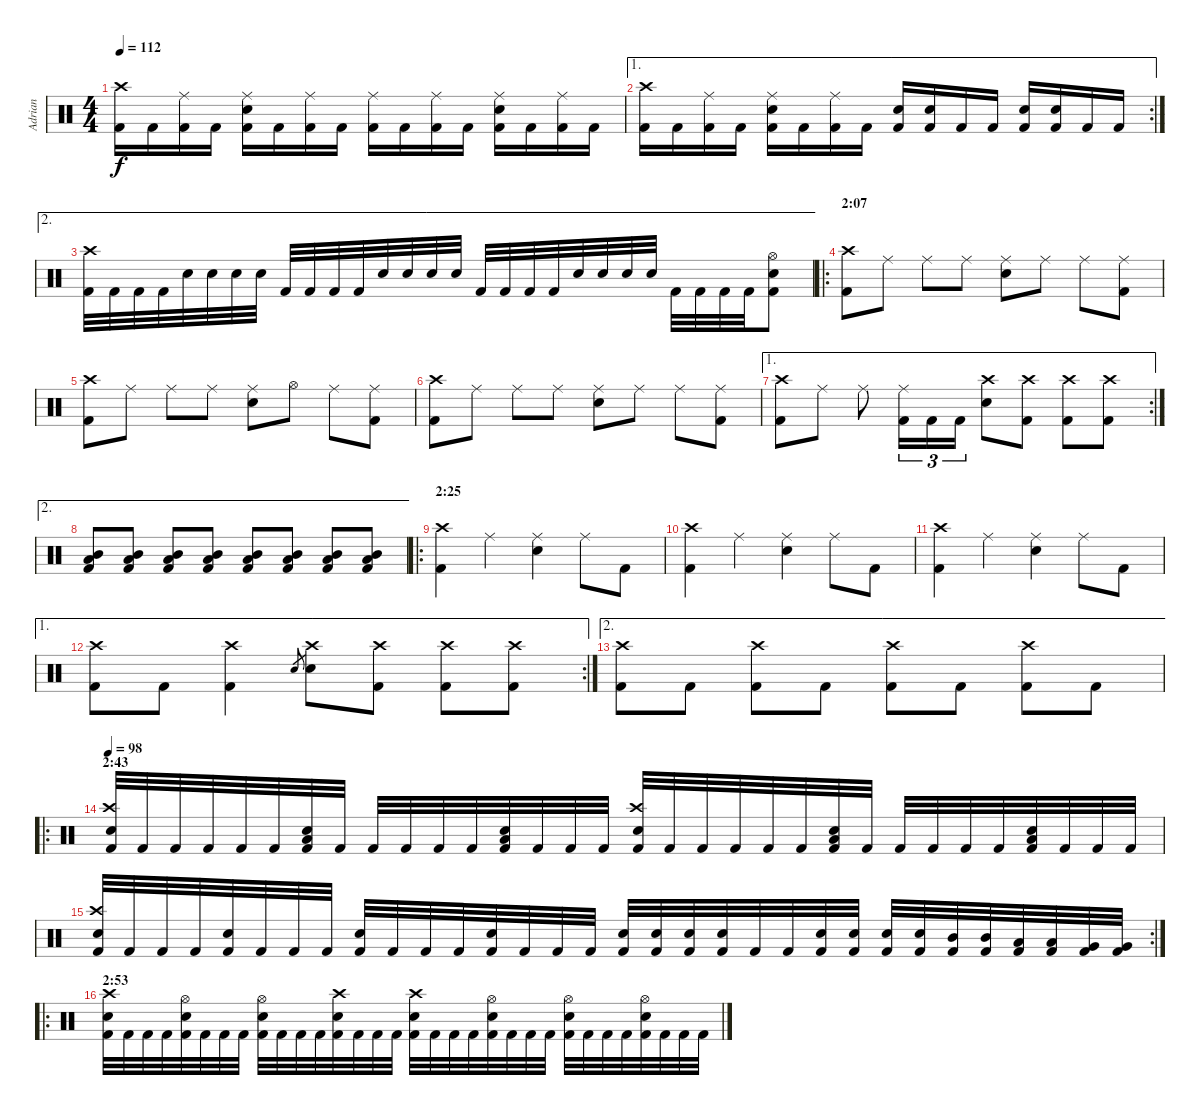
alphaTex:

\track ("Adrian" "Adrian") {instrument percussion}
\staff {score}
\articulation defaults
\ts (4 4)
\tempo 112
\clef neutral
\ks c
("Kick (hit) 2" "Crash high (hit)").16{dy f} "Kick (hit) 2".16 ("Kick (hit) 2" "Ride (middle)").16 "Kick (hit) 2".16 ("Kick (hit) 2" "Snare (hit) 2" "Ride (middle)").16 "Kick (hit) 2".16 ("Kick (hit) 2" "Ride (middle)").16 "Kick (hit) 2".16 ("Kick (hit) 2" "Ride (middle)").16 "Kick (hit) 2".16 ("Kick (hit) 2" "Ride (middle)").16 "Kick (hit) 2".16 ("Kick (hit) 2" "Snare (hit) 2" "Ride (middle)").16 "Kick (hit) 2".16 ("Kick (hit) 2" "Ride (middle)").16 "Kick (hit) 2".16 |
\ae 1
\rc 2
("Kick (hit) 2" "Crash high (hit)").16 "Kick (hit) 2".16 ("Kick (hit) 2" "Ride (middle)").16 "Kick (hit) 2".16 ("Kick (hit) 2" "Snare (hit) 2" "Ride (middle)").16 "Kick (hit) 2".16 ("Kick (hit) 2" "Ride (middle)").16 "Kick (hit) 2".16 ("Kick (hit) 2" "Snare (hit) 2").16 ("Kick (hit) 2" "Snare (hit) 2").16 "Kick (hit) 2".16 "Kick (hit) 2".16 ("Kick (hit) 2" "Snare (hit) 2").16 ("Kick (hit) 2" "Snare (hit) 2").16 "Kick (hit) 2".16 "Kick (hit) 2".16 |
\ae 2
("Kick (hit) 2" "Crash high (hit)").32 "Kick (hit) 2".32 "Kick (hit) 2".32 "Kick (hit) 2".32 "Snare (hit) 2".32 "Snare (hit) 2".32 "Snare (hit) 2".32 "Snare (hit) 2".32 "Kick (hit) 2".32 "Kick (hit) 2".32 "Kick (hit) 2".32 "Kick (hit) 2".32 "Snare (hit) 2".32 "Snare (hit) 2".32 "Snare (hit) 2".32 "Snare (hit) 2".32 "Kick (hit) 2".32 "Kick (hit) 2".32 "Kick (hit) 2".32 "Kick (hit) 2".32 "Snare (hit) 2".32 "Snare (hit) 2".32 "Snare (hit) 2".32 "Snare (hit) 2".32 "Kick (hit) 2".32 "Kick (hit) 2".32 "Kick (hit) 2".32 "Kick (hit) 2".32 ("Kick (hit) 2" "Snare (hit) 2" "Hi-Hat (open)").8 |
\ro
\section ("" "2:07")
("Kick (hit) 2" "Crash high (hit)").8 "Ride (middle)".8 "Ride (middle)".8 "Ride (middle)".8 ("Snare (hit) 2" "Ride (middle)").8 "Ride (middle)".8 "Ride (middle)".8 ("Kick (hit) 2" "Ride (middle)").8 |
("Kick (hit) 2" "Crash high (hit)").8 "Ride (middle)".8 "Ride (middle)".8 "Ride (middle)".8 ("Snare (hit) 2" "Ride (middle)").8 "Hi-Hat (open)".8 "Ride (middle)".8 ("Kick (hit) 2" "Ride (middle)").8 |
("Kick (hit) 2" "Crash high (hit)").8 "Ride (middle)".8 "Ride (middle)".8 "Ride (middle)".8 ("Snare (hit) 2" "Ride (middle)").8 "Ride (middle)".8 "Ride (middle)".8 ("Kick (hit) 2" "Ride (middle)").8 |
\ae 1
\rc 2
("Kick (hit) 2" "Crash high (hit)").8 "Ride (middle)".8 "Ride (middle)".8 ("Kick (hit) 2" "Ride (middle)").16{tu (3 2)} "Kick (hit) 2".16{tu (3 2)} "Kick (hit) 2".16{tu (3 2)} ("Snare (hit) 2" "Crash high (hit)").8 ("Kick (hit) 2" "Crash high (hit)").8 ("Kick (hit) 2" "Crash high (hit)").8 ("Kick (hit) 2" "Crash high (hit)").8 |
\ae 2
("Kick (hit) 2" "Low Tom (hit)" "Mid Tom (hit)").8 ("Kick (hit) 2" "Low Tom (hit)" "Mid Tom (hit)").8 ("Kick (hit) 2" "Low Tom (hit)" "Mid Tom (hit)").8 ("Kick (hit) 2" "Low Tom (hit)" "Mid Tom (hit)").8 ("Kick (hit) 2" "Low Tom (hit)" "Mid Tom (hit)").8 ("Kick (hit) 2" "Low Tom (hit)" "Mid Tom (hit)").8 ("Kick (hit) 2" "Low Tom (hit)" "Mid Tom (hit)").8 ("Kick (hit) 2" "Low Tom (hit)" "Mid Tom (hit)").8 |
\ro
\section ("" "2:25")
("Kick (hit) 2" "Crash high (hit)").4 "Ride (middle)".4 ("Snare (hit) 2" "Ride (middle)").4 "Ride (middle)".8 "Kick (hit) 2".8 |
("Kick (hit) 2" "Crash high (hit)").4 "Ride (middle)".4 ("Snare (hit) 2" "Ride (middle)").4 "Ride (middle)".8 "Kick (hit) 2".8 |
("Kick (hit) 2" "Crash high (hit)").4 "Ride (middle)".4 ("Snare (hit) 2" "Ride (middle)").4 "Ride (middle)".8 "Kick (hit) 2".8 |
\ae 1
\rc 2
("Kick (hit) 2" "Crash high (hit)").8 "Kick (hit) 2".8 ("Kick (hit) 2" "Crash high (hit)").4 "Snare (hit) 2".8{gr} ("Snare (hit) 2" "Crash high (hit)").8 ("Kick (hit) 2" "Crash high (hit)").8 ("Kick (hit) 2" "Crash high (hit)").8 ("Kick (hit) 2" "Crash high (hit)").8 |
\ae 2
("Kick (hit) 2" "Crash high (hit)").8 "Kick (hit) 2".8 ("Kick (hit) 2" "Crash high (hit)").8 "Kick (hit) 2".8 ("Kick (hit) 2" "Crash high (hit)").8 "Kick (hit) 2".8 ("Kick (hit) 2" "Crash high (hit)").8 "Kick (hit) 2".8 |
\ro
\section ("" "2:43")
\tempo 98
("Kick (hit) 2" "Snare (hit) 2" "Crash high (hit)").32 "Kick (hit) 2".32 "Kick (hit) 2".32 "Kick (hit) 2".32 "Kick (hit) 2".32 "Kick (hit) 2".32 ("Kick (hit) 2" "Snare (hit) 2" "Low Tom (hit)").32 "Kick (hit) 2".32 "Kick (hit) 2".32 "Kick (hit) 2".32 "Kick (hit) 2".32 "Kick (hit) 2".32 ("Kick (hit) 2" "Snare (hit) 2" "Low Tom (hit)").32 "Kick (hit) 2".32 "Kick (hit) 2".32 "Kick (hit) 2".32 ("Kick (hit) 2" "Snare (hit) 2" "Crash high (hit)").32 "Kick (hit) 2".32 "Kick (hit) 2".32 "Kick (hit) 2".32 "Kick (hit) 2".32 "Kick (hit) 2".32 ("Kick (hit) 2" "Snare (hit) 2" "Low Tom (hit)").32 "Kick (hit) 2".32 "Kick (hit) 2".32 "Kick (hit) 2".32 "Kick (hit) 2".32 "Kick (hit) 2".32 ("Kick (hit) 2" "Snare (hit) 2" "Low Tom (hit)").32 "Kick (hit) 2".32 "Kick (hit) 2".32 "Kick (hit) 2".32 |
\rc 2
("Kick (hit) 2" "Snare (hit) 2" "Crash high (hit)").32 "Kick (hit) 2".32 "Kick (hit) 2".32 "Kick (hit) 2".32 ("Kick (hit) 2" "Snare (hit) 2").32 "Kick (hit) 2".32 "Kick (hit) 2".32 "Kick (hit) 2".32 ("Kick (hit) 2" "Snare (hit) 2").32 "Kick (hit) 2".32 "Kick (hit) 2".32 "Kick (hit) 2".32 ("Kick (hit) 2" "Snare (hit) 2").32 "Kick (hit) 2".32 "Kick (hit) 2".32 "Kick (hit) 2".32 ("Kick (hit) 2" "Snare (hit) 2").32 ("Kick (hit) 2" "Snare (hit) 2").32 ("Kick (hit) 2" "Snare (hit) 2").32 ("Kick (hit) 2" "Snare (hit) 2").32 "Kick (hit) 2".32 "Kick (hit) 2".32 ("Kick (hit) 2" "Snare (hit) 2").32 ("Kick (hit) 2" "Snare (hit) 2").32 ("Kick (hit) 2" "Snare (hit) 2").32 ("Kick (hit) 2" "Snare (hit) 2").32 ("Kick (hit) 2" "Mid Tom (hit)").32 ("Kick (hit) 2" "Mid Tom (hit)").32 ("Kick (hit) 2" "Low Tom (hit)").32 ("Kick (hit) 2" "Low Tom (hit)").32 ("Kick (hit) 2" "Very Low Tom (hit)").32 ("Kick (hit) 2" "Very Low Tom (hit)").32 |
\ro
\section ("" "2:53")
("Kick (hit) 2" "Snare (hit) 2" "Crash high (hit)").32 "Kick (hit) 2".32 "Kick (hit) 2".32 "Kick (hit) 2".32 ("Kick (hit) 2" "Snare (hit) 2" "Hi-Hat (open)").32 "Kick (hit) 2".32 "Kick (hit) 2".32 "Kick (hit) 2".32 ("Kick (hit) 2" "Snare (hit) 2" "Hi-Hat (open)").32 "Kick (hit) 2".32 "Kick (hit) 2".32 "Kick (hit) 2".32 ("Kick (hit) 2" "Snare (hit) 2" "Crash high (hit)").32 "Kick (hit) 2".32 "Kick (hit) 2".32 "Kick (hit) 2".32 ("Kick (hit) 2" "Snare (hit) 2" "Crash high (hit)").32 "Kick (hit) 2".32 "Kick (hit) 2".32 "Kick (hit) 2".32 ("Kick (hit) 2" "Snare (hit) 2" "Hi-Hat (open)").32 "Kick (hit) 2".32 "Kick (hit) 2".32 "Kick (hit) 2".32 ("Kick (hit) 2" "Snare (hit) 2" "Hi-Hat (open)").32 "Kick (hit) 2".32 "Kick (hit) 2".32 "Kick (hit) 2".32 ("Kick (hit) 2" "Snare (hit) 2" "Hi-Hat (open)").32 "Kick (hit) 2".32 "Kick (hit) 2".32 "Kick (hit) 2".32
